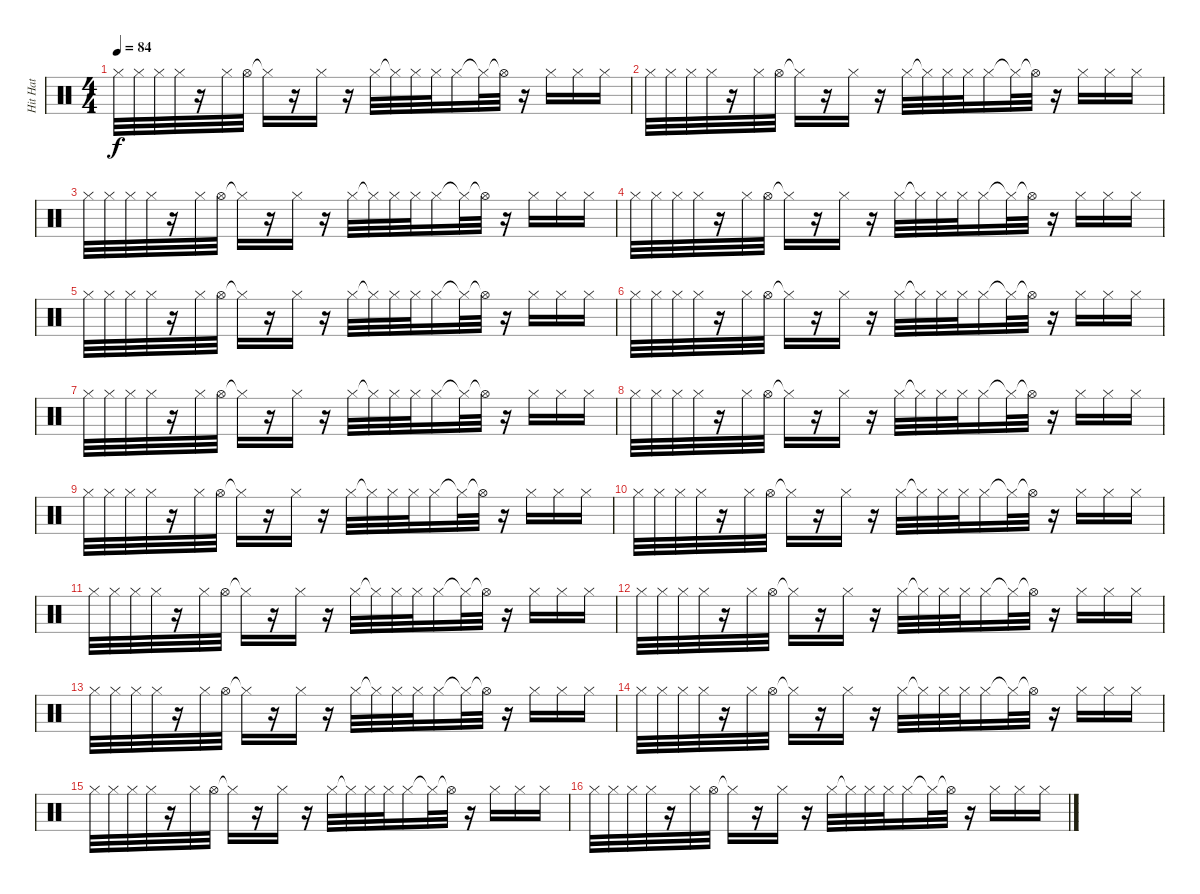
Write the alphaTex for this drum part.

\track ("Hit Hat" "Hit Hat") {instrument percussion}
\staff {score}
\articulation defaults
\ts (4 4)
\tempo 84
\clef neutral
\ks c "Hi-Hat (closed)".32{dy f} "Hi-Hat (closed)".32 "Hi-Hat (closed)".32 "Hi-Hat (closed)".32
r.16 "Hi-Hat (closed)".32 "Hi-Hat (open)".32 "Hi-Hat (closed)"{t}.16 r.16 "Hi-Hat (closed)".16 r.16 "Hi-Hat (closed)".32 "Hi-Hat (closed)"{t}.32 "Hi-Hat (closed)".32 "Hi-Hat (closed)".32 "Hi-Hat (closed)".16 "Hi-Hat (closed)"{t}.32 "Hi-Hat (open)"{t}.32 r.16 "Hi-Hat (closed)".16 "Hi-Hat (closed)".16 "Hi-Hat (closed)".16 |
"Hi-Hat (closed)".32 "Hi-Hat (closed)".32 "Hi-Hat (closed)".32 "Hi-Hat (closed)".32 r.16 "Hi-Hat (closed)".32 "Hi-Hat (open)".32 "Hi-Hat (closed)"{t}.16 r.16 "Hi-Hat (closed)".16 r.16 "Hi-Hat (closed)".32 "Hi-Hat (closed)"{t}.32 "Hi-Hat (closed)".32 "Hi-Hat (closed)".32 "Hi-Hat (closed)".16 "Hi-Hat (closed)"{t}.32 "Hi-Hat (open)"{t}.32 r.16 "Hi-Hat (closed)".16 "Hi-Hat (closed)".16 "Hi-Hat (closed)".16 |
"Hi-Hat (closed)".32 "Hi-Hat (closed)".32 "Hi-Hat (closed)".32 "Hi-Hat (closed)".32 r.16 "Hi-Hat (closed)".32 "Hi-Hat (open)".32 "Hi-Hat (closed)"{t}.16 r.16 "Hi-Hat (closed)".16 r.16 "Hi-Hat (closed)".32 "Hi-Hat (closed)"{t}.32 "Hi-Hat (closed)".32 "Hi-Hat (closed)".32 "Hi-Hat (closed)".16 "Hi-Hat (closed)"{t}.32 "Hi-Hat (open)"{t}.32 r.16 "Hi-Hat (closed)".16 "Hi-Hat (closed)".16 "Hi-Hat (closed)".16 |
"Hi-Hat (closed)".32 "Hi-Hat (closed)".32 "Hi-Hat (closed)".32 "Hi-Hat (closed)".32 r.16 "Hi-Hat (closed)".32 "Hi-Hat (open)".32 "Hi-Hat (closed)"{t}.16 r.16 "Hi-Hat (closed)".16 r.16 "Hi-Hat (closed)".32 "Hi-Hat (closed)"{t}.32 "Hi-Hat (closed)".32 "Hi-Hat (closed)".32 "Hi-Hat (closed)".16 "Hi-Hat (closed)"{t}.32 "Hi-Hat (open)"{t}.32 r.16 "Hi-Hat (closed)".16 "Hi-Hat (closed)".16 "Hi-Hat (closed)".16 |
"Hi-Hat (closed)".32 "Hi-Hat (closed)".32 "Hi-Hat (closed)".32 "Hi-Hat (closed)".32 r.16 "Hi-Hat (closed)".32 "Hi-Hat (open)".32 "Hi-Hat (closed)"{t}.16 r.16 "Hi-Hat (closed)".16 r.16 "Hi-Hat (closed)".32 "Hi-Hat (closed)"{t}.32 "Hi-Hat (closed)".32 "Hi-Hat (closed)".32 "Hi-Hat (closed)".16 "Hi-Hat (closed)"{t}.32 "Hi-Hat (open)"{t}.32 r.16 "Hi-Hat (closed)".16 "Hi-Hat (closed)".16 "Hi-Hat (closed)".16 |
"Hi-Hat (closed)".32 "Hi-Hat (closed)".32 "Hi-Hat (closed)".32 "Hi-Hat (closed)".32 r.16 "Hi-Hat (closed)".32 "Hi-Hat (open)".32 "Hi-Hat (closed)"{t}.16 r.16 "Hi-Hat (closed)".16 r.16 "Hi-Hat (closed)".32 "Hi-Hat (closed)"{t}.32 "Hi-Hat (closed)".32 "Hi-Hat (closed)".32 "Hi-Hat (closed)".16 "Hi-Hat (closed)"{t}.32 "Hi-Hat (open)"{t}.32 r.16 "Hi-Hat (closed)".16 "Hi-Hat (closed)".16 "Hi-Hat (closed)".16 |
"Hi-Hat (closed)".32 "Hi-Hat (closed)".32 "Hi-Hat (closed)".32 "Hi-Hat (closed)".32 r.16 "Hi-Hat (closed)".32 "Hi-Hat (open)".32 "Hi-Hat (closed)"{t}.16 r.16 "Hi-Hat (closed)".16 r.16 "Hi-Hat (closed)".32 "Hi-Hat (closed)"{t}.32 "Hi-Hat (closed)".32 "Hi-Hat (closed)".32 "Hi-Hat (closed)".16 "Hi-Hat (closed)"{t}.32 "Hi-Hat (open)"{t}.32 r.16 "Hi-Hat (closed)".16 "Hi-Hat (closed)".16 "Hi-Hat (closed)".16 |
"Hi-Hat (closed)".32 "Hi-Hat (closed)".32 "Hi-Hat (closed)".32 "Hi-Hat (closed)".32 r.16 "Hi-Hat (closed)".32 "Hi-Hat (open)".32 "Hi-Hat (closed)"{t}.16 r.16 "Hi-Hat (closed)".16 r.16 "Hi-Hat (closed)".32 "Hi-Hat (closed)"{t}.32 "Hi-Hat (closed)".32 "Hi-Hat (closed)".32 "Hi-Hat (closed)".16 "Hi-Hat (closed)"{t}.32 "Hi-Hat (open)"{t}.32 r.16 "Hi-Hat (closed)".16 "Hi-Hat (closed)".16 "Hi-Hat (closed)".16 |
"Hi-Hat (closed)".32 "Hi-Hat (closed)".32 "Hi-Hat (closed)".32 "Hi-Hat (closed)".32 r.16 "Hi-Hat (closed)".32 "Hi-Hat (open)".32 "Hi-Hat (closed)"{t}.16 r.16 "Hi-Hat (closed)".16 r.16 "Hi-Hat (closed)".32 "Hi-Hat (closed)"{t}.32 "Hi-Hat (closed)".32 "Hi-Hat (closed)".32 "Hi-Hat (closed)".16 "Hi-Hat (closed)"{t}.32 "Hi-Hat (open)"{t}.32 r.16 "Hi-Hat (closed)".16 "Hi-Hat (closed)".16 "Hi-Hat (closed)".16 |
"Hi-Hat (closed)".32 "Hi-Hat (closed)".32 "Hi-Hat (closed)".32 "Hi-Hat (closed)".32 r.16 "Hi-Hat (closed)".32 "Hi-Hat (open)".32 "Hi-Hat (closed)"{t}.16 r.16 "Hi-Hat (closed)".16 r.16 "Hi-Hat (closed)".32 "Hi-Hat (closed)"{t}.32 "Hi-Hat (closed)".32 "Hi-Hat (closed)".32 "Hi-Hat (closed)".16 "Hi-Hat (closed)"{t}.32 "Hi-Hat (open)"{t}.32 r.16 "Hi-Hat (closed)".16 "Hi-Hat (closed)".16 "Hi-Hat (closed)".16 |
"Hi-Hat (closed)".32 "Hi-Hat (closed)".32 "Hi-Hat (closed)".32 "Hi-Hat (closed)".32 r.16 "Hi-Hat (closed)".32 "Hi-Hat (open)".32 "Hi-Hat (closed)"{t}.16 r.16 "Hi-Hat (closed)".16 r.16 "Hi-Hat (closed)".32 "Hi-Hat (closed)"{t}.32 "Hi-Hat (closed)".32 "Hi-Hat (closed)".32 "Hi-Hat (closed)".16 "Hi-Hat (closed)"{t}.32 "Hi-Hat (open)"{t}.32 r.16 "Hi-Hat (closed)".16 "Hi-Hat (closed)".16 "Hi-Hat (closed)".16 |
"Hi-Hat (closed)".32 "Hi-Hat (closed)".32 "Hi-Hat (closed)".32 "Hi-Hat (closed)".32 r.16 "Hi-Hat (closed)".32 "Hi-Hat (open)".32 "Hi-Hat (closed)"{t}.16 r.16 "Hi-Hat (closed)".16 r.16 "Hi-Hat (closed)".32 "Hi-Hat (closed)"{t}.32 "Hi-Hat (closed)".32 "Hi-Hat (closed)".32 "Hi-Hat (closed)".16 "Hi-Hat (closed)"{t}.32 "Hi-Hat (open)"{t}.32 r.16 "Hi-Hat (closed)".16 "Hi-Hat (closed)".16 "Hi-Hat (closed)".16 |
"Hi-Hat (closed)".32 "Hi-Hat (closed)".32 "Hi-Hat (closed)".32 "Hi-Hat (closed)".32 r.16 "Hi-Hat (closed)".32 "Hi-Hat (open)".32 "Hi-Hat (closed)"{t}.16 r.16 "Hi-Hat (closed)".16 r.16 "Hi-Hat (closed)".32 "Hi-Hat (closed)"{t}.32 "Hi-Hat (closed)".32 "Hi-Hat (closed)".32 "Hi-Hat (closed)".16 "Hi-Hat (closed)"{t}.32 "Hi-Hat (open)"{t}.32 r.16 "Hi-Hat (closed)".16 "Hi-Hat (closed)".16 "Hi-Hat (closed)".16 |
"Hi-Hat (closed)".32 "Hi-Hat (closed)".32 "Hi-Hat (closed)".32 "Hi-Hat (closed)".32 r.16 "Hi-Hat (closed)".32 "Hi-Hat (open)".32 "Hi-Hat (closed)"{t}.16 r.16 "Hi-Hat (closed)".16 r.16 "Hi-Hat (closed)".32 "Hi-Hat (closed)"{t}.32 "Hi-Hat (closed)".32 "Hi-Hat (closed)".32 "Hi-Hat (closed)".16 "Hi-Hat (closed)"{t}.32 "Hi-Hat (open)"{t}.32 r.16 "Hi-Hat (closed)".16 "Hi-Hat (closed)".16 "Hi-Hat (closed)".16 |
"Hi-Hat (closed)".32 "Hi-Hat (closed)".32 "Hi-Hat (closed)".32 "Hi-Hat (closed)".32 r.16 "Hi-Hat (closed)".32 "Hi-Hat (open)".32 "Hi-Hat (closed)"{t}.16 r.16 "Hi-Hat (closed)".16 r.16 "Hi-Hat (closed)".32 "Hi-Hat (closed)"{t}.32 "Hi-Hat (closed)".32 "Hi-Hat (closed)".32 "Hi-Hat (closed)".16 "Hi-Hat (closed)"{t}.32 "Hi-Hat (open)"{t}.32 r.16 "Hi-Hat (closed)".16 "Hi-Hat (closed)".16 "Hi-Hat (closed)".16 |
"Hi-Hat (closed)".32 "Hi-Hat (closed)".32 "Hi-Hat (closed)".32 "Hi-Hat (closed)".32 r.16 "Hi-Hat (closed)".32 "Hi-Hat (open)".32 "Hi-Hat (closed)"{t}.16 r.16 "Hi-Hat (closed)".16 r.16 "Hi-Hat (closed)".32 "Hi-Hat (closed)"{t}.32 "Hi-Hat (closed)".32 "Hi-Hat (closed)".32 "Hi-Hat (closed)".16 "Hi-Hat (closed)"{t}.32 "Hi-Hat (open)"{t}.32 r.16 "Hi-Hat (closed)".16 "Hi-Hat (closed)".16 "Hi-Hat (closed)".16
